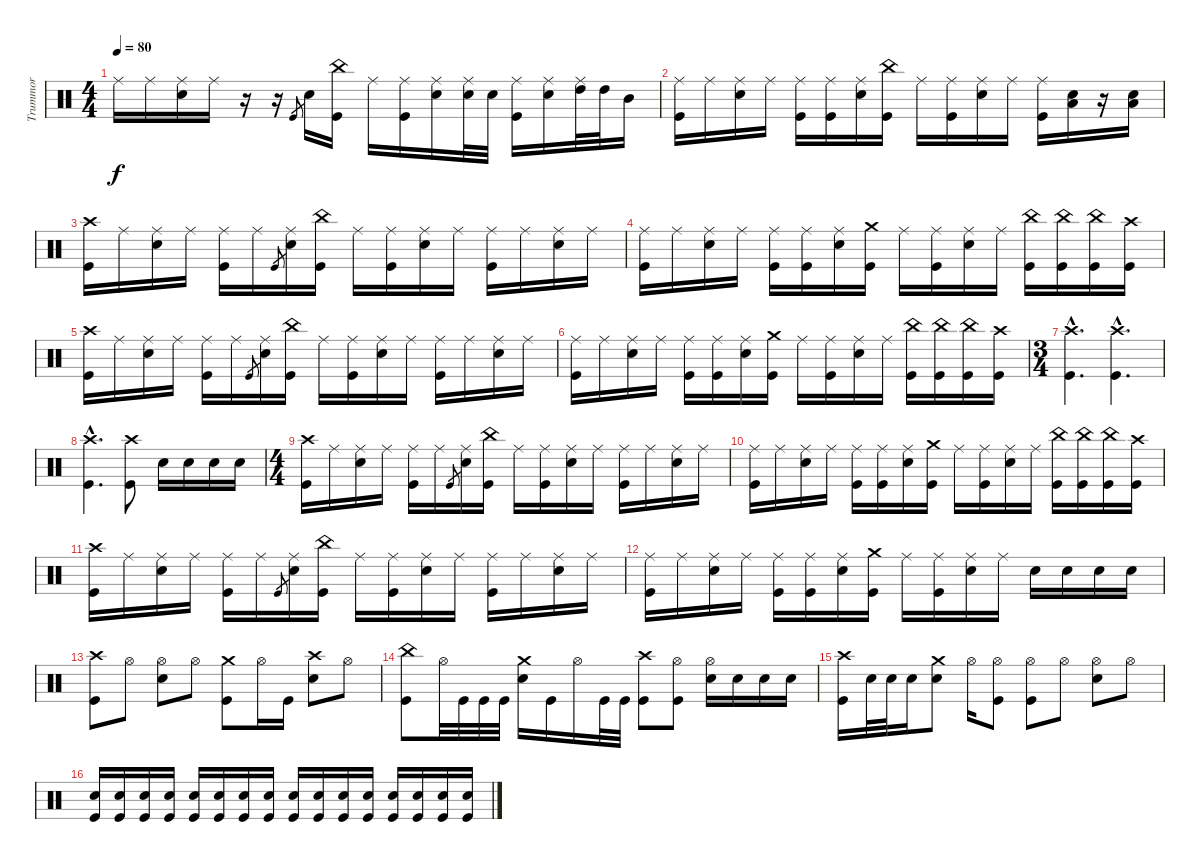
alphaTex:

\track ("Trummor" "Trummor") {instrument percussion}
\staff {score}
\articulation defaults
\ts (4 4)
\tempo 80
\clef neutral
\ks c "Ride (middle)".16{dy f} "Ride (middle)".16
("Ride (middle)" "Electric Snare (hit)").16 "Ride (middle)".16 r.16 r.16 "Kick (hit)"{sl}.8{gr} "Electric Snare (hit)".16 ("China (hit)" "Kick (hit)").16 "Ride (middle)".16 ("Ride (middle)" "Kick (hit)").16 ("Ride (middle)" "Electric Snare (hit)").16 ("Ride (middle)" "Electric Snare (hit)").32 "Electric Snare (hit)".32 ("Ride (middle)" "Kick (hit)").16 ("Ride (middle)" "Electric Snare (hit)").16 ("Ride (middle)" "High Tom (hit)").32 "High Tom (hit)".32 "Mid Tom (hit)".16 |
("Ride (middle)" "Kick (hit)").16 "Ride (middle)".16 ("Ride (middle)" "Electric Snare (hit)").16 "Ride (middle)".16 ("Ride (middle)" "Kick (hit)").16 ("Ride (middle)" "Kick (hit)").16 ("Ride (middle)" "Electric Snare (hit)").16 ("China (hit)" "Kick (hit)").16 "Ride (middle)".16 ("Ride (middle)" "Kick (hit)").16 ("Ride (middle)" "Electric Snare (hit)").16 "Ride (middle)".16 ("Ride (middle)" "Kick (hit)").16 ("Electric Snare (hit)" "Low Floor Tom (hit)").16 r.16 ("Electric Snare (hit)" "Low Floor Tom (hit)").16 |
("Crash high (hit)" "Kick (hit)").16 "Ride (middle)".16 ("Ride (middle)" "Electric Snare (hit)").16 "Ride (middle)".16 ("Ride (middle)" "Kick (hit)").16 "Ride (middle)".16 "Kick (hit)"{sl}.8{gr} ("Ride (middle)" "Electric Snare (hit)").16 ("China (hit)" "Kick (hit)").16 "Ride (middle)".16 ("Ride (middle)" "Kick (hit)").16 ("Ride (middle)" "Electric Snare (hit)").16 "Ride (middle)".16 ("Ride (middle)" "Kick (hit)").16 "Ride (middle)".16 ("Ride (middle)" "Electric Snare (hit)").16 "Ride (middle)".16 |
("Ride (middle)" "Kick (hit)").16 "Ride (middle)".16 ("Ride (middle)" "Electric Snare (hit)").16 "Ride (middle)".16 ("Ride (middle)" "Kick (hit)").16 ("Ride (middle)" "Kick (hit)").16 ("Ride (middle)" "Electric Snare (hit)").16 ("Crash medium (hit)" "Kick (hit)").16 "Ride (middle)".16 ("Ride (middle)" "Kick (hit)").16 ("Ride (middle)" "Electric Snare (hit)").16 "Ride (middle)".16 ("China (hit)" "Kick (hit)").16 ("China (hit)" "Kick (hit)").16 ("China (hit)" "Kick (hit)").16 ("Crash high (hit)" "Kick (hit)").16 |
("Crash high (hit)" "Kick (hit)").16 "Ride (middle)".16 ("Ride (middle)" "Electric Snare (hit)").16 "Ride (middle)".16 ("Ride (middle)" "Kick (hit)").16 "Ride (middle)".16 "Kick (hit)"{sl}.8{gr} ("Ride (middle)" "Electric Snare (hit)").16 ("China (hit)" "Kick (hit)").16 "Ride (middle)".16 ("Ride (middle)" "Kick (hit)").16 ("Ride (middle)" "Electric Snare (hit)").16 "Ride (middle)".16 ("Ride (middle)" "Kick (hit)").16 "Ride (middle)".16 ("Ride (middle)" "Electric Snare (hit)").16 "Ride (middle)".16 |
("Ride (middle)" "Kick (hit)").16 "Ride (middle)".16 ("Ride (middle)" "Electric Snare (hit)").16 "Ride (middle)".16 ("Ride (middle)" "Kick (hit)").16 ("Ride (middle)" "Kick (hit)").16 ("Ride (middle)" "Electric Snare (hit)").16 ("Crash medium (hit)" "Kick (hit)").16 "Ride (middle)".16 ("Ride (middle)" "Kick (hit)").16 ("Ride (middle)" "Electric Snare (hit)").16 "Ride (middle)".16 ("China (hit)" "Kick (hit)").16 ("China (hit)" "Kick (hit)").16 ("China (hit)" "Kick (hit)").16 ("Crash high (hit)" "Kick (hit)").16 |
\ts (3 4)
("Crash high (hit)"{hac} "Kick (hit)"{hac}).4{d} ("Crash high (hit)"{hac} "Kick (hit)"{hac}).4{d} |
("Crash high (hit)"{hac} "Kick (hit)"{hac}).4{d} ("Crash high (hit)" "Kick (hit)").8 "Electric Snare (hit)".16 "Electric Snare (hit)".16 "Electric Snare (hit)".16 "Electric Snare (hit)".16 |
\ts (4 4)
("Crash high (hit)" "Kick (hit)").16 "Ride (middle)".16 ("Ride (middle)" "Electric Snare (hit)").16 "Ride (middle)".16 ("Ride (middle)" "Kick (hit)").16 "Ride (middle)".16 "Kick (hit)"{sl}.8{gr} ("Ride (middle)" "Electric Snare (hit)").16 ("China (hit)" "Kick (hit)").16 "Ride (middle)".16 ("Ride (middle)" "Kick (hit)").16 ("Ride (middle)" "Electric Snare (hit)").16 "Ride (middle)".16 ("Ride (middle)" "Kick (hit)").16 "Ride (middle)".16 ("Ride (middle)" "Electric Snare (hit)").16 "Ride (middle)".16 |
("Ride (middle)" "Kick (hit)").16 "Ride (middle)".16 ("Ride (middle)" "Electric Snare (hit)").16 "Ride (middle)".16 ("Ride (middle)" "Kick (hit)").16 ("Ride (middle)" "Kick (hit)").16 ("Ride (middle)" "Electric Snare (hit)").16 ("Crash medium (hit)" "Kick (hit)").16 "Ride (middle)".16 ("Ride (middle)" "Kick (hit)").16 ("Ride (middle)" "Electric Snare (hit)").16 "Ride (middle)".16 ("China (hit)" "Kick (hit)").16 ("China (hit)" "Kick (hit)").16 ("China (hit)" "Kick (hit)").16 ("Crash high (hit)" "Kick (hit)").16 |
("Crash high (hit)" "Kick (hit)").16 "Ride (middle)".16 ("Ride (middle)" "Electric Snare (hit)").16 "Ride (middle)".16 ("Ride (middle)" "Kick (hit)").16 "Ride (middle)".16 "Kick (hit)"{sl}.8{gr} ("Ride (middle)" "Electric Snare (hit)").16 ("China (hit)" "Kick (hit)").16 "Ride (middle)".16 ("Ride (middle)" "Kick (hit)").16 ("Ride (middle)" "Electric Snare (hit)").16 "Ride (middle)".16 ("Ride (middle)" "Kick (hit)").16 "Ride (middle)".16 ("Ride (middle)" "Electric Snare (hit)").16 "Ride (middle)".16 |
("Ride (middle)" "Kick (hit)").16 "Ride (middle)".16 ("Ride (middle)" "Electric Snare (hit)").16 "Ride (middle)".16 ("Ride (middle)" "Kick (hit)").16 ("Ride (middle)" "Kick (hit)").16 ("Ride (middle)" "Electric Snare (hit)").16 ("Crash medium (hit)" "Kick (hit)").16 "Ride (middle)".16 ("Ride (middle)" "Kick (hit)").16 ("Ride (middle)" "Electric Snare (hit)").16 "Ride (middle)".16 "Electric Snare (hit)".16 "Electric Snare (hit)".16 "Electric Snare (hit)".16 "Electric Snare (hit)".16 |
("Crash high (hit)" "Kick (hit)").8 "Hi-Hat (open)".8 ("Hi-Hat (open)" "Electric Snare (hit)").8 "Hi-Hat (open)".8 ("Crash medium (hit)" "Kick (hit)").8 "Hi-Hat (open)".16 "Kick (hit)".16 ("Crash high (hit)" "Electric Snare (hit)").8 "Hi-Hat (open)".8 |
("China (hit)" "Kick (hit)").8 "Hi-Hat (open)".32 "Kick (hit)".32 "Kick (hit)".32 "Kick (hit)".32 ("Crash medium (hit)" "Electric Snare (hit)").16 "Kick (hit)".16 "Hi-Hat (open)".16 "Kick (hit)".32 "Kick (hit)".32 ("Crash high (hit)" "Kick (hit)").8 ("Hi-Hat (open)" "Kick (hit)").8 ("Hi-Hat (open)" "Electric Snare (hit)").16 "Electric Snare (hit)".16 "Electric Snare (hit)".16 "Electric Snare (hit)".16 |
("Crash high (hit)" "Kick (hit)").16 "Electric Snare (hit)".32 "Electric Snare (hit)".32 "Electric Snare (hit)".16 ("Crash medium (hit)" "Electric Snare (hit)").8 "Hi-Hat (open)".16 ("Hi-Hat (open)" "Kick (hit)").8 ("Hi-Hat (open)" "Kick (hit)").8 "Hi-Hat (open)".8 ("Hi-Hat (open)" "Electric Snare (hit)").8 "Hi-Hat (open)".8 |
("Electric Snare (hit)" "Kick (hit)").16 ("Electric Snare (hit)" "Kick (hit)").16 ("Electric Snare (hit)" "Kick (hit)").16 ("Electric Snare (hit)" "Kick (hit)").16 ("Electric Snare (hit)" "Kick (hit)").16 ("Electric Snare (hit)" "Kick (hit)").16 ("Electric Snare (hit)" "Kick (hit)").16 ("Electric Snare (hit)" "Kick (hit)").16 ("Electric Snare (hit)" "Kick (hit)").16 ("Electric Snare (hit)" "Kick (hit)").16 ("Electric Snare (hit)" "Kick (hit)").16 ("Electric Snare (hit)" "Kick (hit)").16 ("Electric Snare (hit)" "Kick (hit)").16 ("Electric Snare (hit)" "Kick (hit)").16 ("Electric Snare (hit)" "Kick (hit)").16 ("Electric Snare (hit)" "Kick (hit)").16
